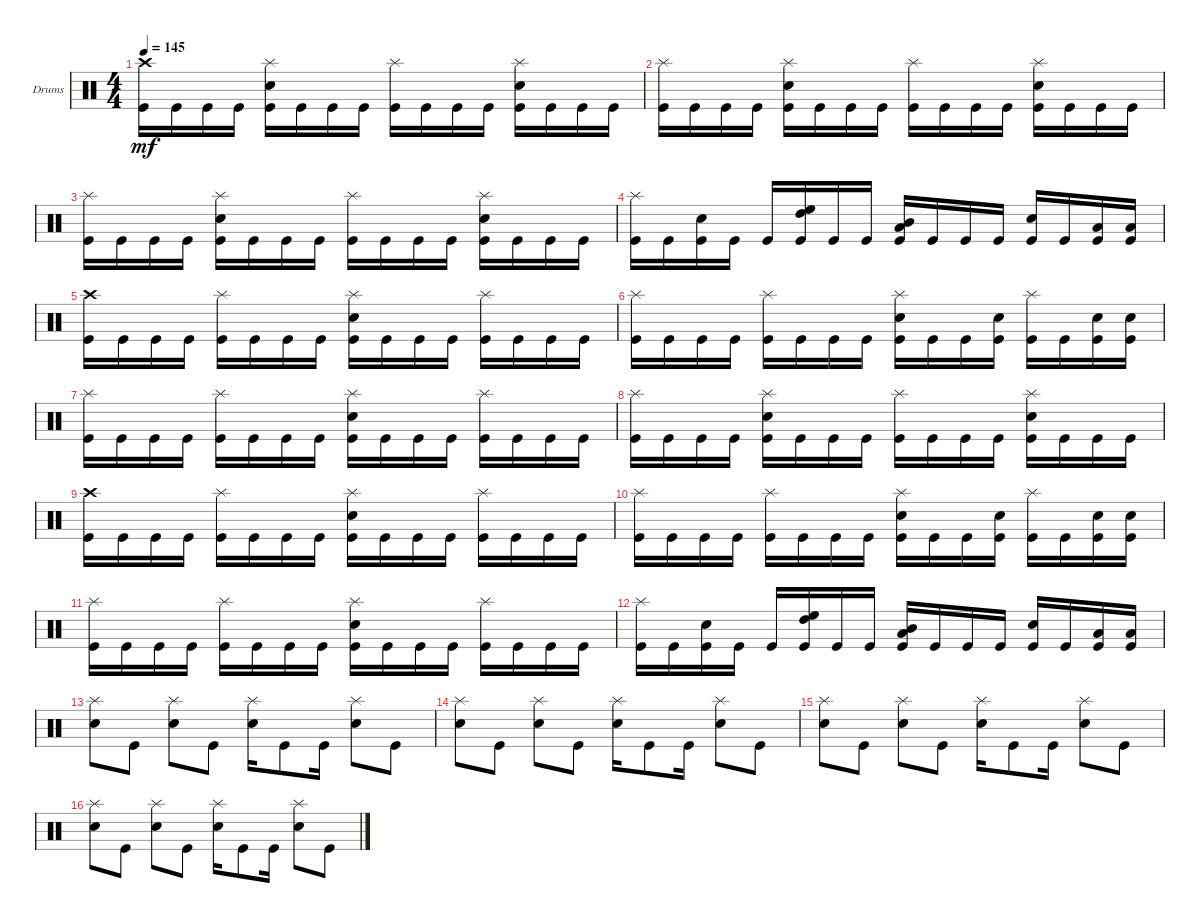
\bracketExtendMode groupsimilarinstruments
\firstSystemTrackNameOrientation horizontal
\otherSystemsTrackNameOrientation horizontal
\track ("Drumkit" "Drums") {instrument percussion}
\staff {score}
\articulation defaults
\ts (4 4)
\tempo 145
\clef neutral
\ks c
("Kick (hit)" "Crash high (hit)").16{dy mf} "Kick (hit)".16 "Kick (hit)".16 "Kick (hit)".16 ("Kick (hit)" "Snare (hit) 2" "Splash (hit)").16 "Kick (hit)".16 "Kick (hit)".16 "Kick (hit)".16 ("Kick (hit)" "Splash (hit)").16 "Kick (hit)".16 "Kick (hit)".16 "Kick (hit)".16 ("Kick (hit)" "Snare (hit) 2" "Splash (hit)").16 "Kick (hit)".16 "Kick (hit)".16 "Kick (hit)".16 |
("Kick (hit)" "Splash (hit)").16 "Kick (hit)".16 "Kick (hit)".16 "Kick (hit)".16 ("Kick (hit)" "Snare (hit) 2" "Splash (hit)").16 "Kick (hit)".16 "Kick (hit)".16 "Kick (hit)".16 ("Kick (hit)" "Splash (hit)").16 "Kick (hit)".16 "Kick (hit)".16 "Kick (hit)".16 ("Kick (hit)" "Snare (hit) 2" "Splash (hit)").16 "Kick (hit)".16 "Kick (hit)".16 "Kick (hit)".16 |
("Kick (hit)" "Splash (hit)").16 "Kick (hit)".16 "Kick (hit)".16 "Kick (hit)".16 ("Kick (hit)" "Snare (hit) 2" "Splash (hit)").16 "Kick (hit)".16 "Kick (hit)".16 "Kick (hit)".16 ("Kick (hit)" "Splash (hit)").16 "Kick (hit)".16 "Kick (hit)".16 "Kick (hit)".16 ("Kick (hit)" "Snare (hit) 2" "Splash (hit)").16 "Kick (hit)".16 "Kick (hit)".16 "Kick (hit)".16 |
("Kick (hit)" "Splash (hit)").16 "Kick (hit)".16 ("Snare (hit) 2" "Kick (hit)").16 "Kick (hit)".16 "Kick (hit)".16 ("High Tom (hit)" "High Floor Tom (hit)" "Kick (hit)").16 "Kick (hit)".16 "Kick (hit)".16 ("Mid Tom (hit)" "Low Tom (hit)" "Kick (hit)").16 "Kick (hit)".16 "Kick (hit)".16 "Kick (hit)".16 ("Snare (hit) 2" "Kick (hit)").16 "Kick (hit)".16 ("Low Tom (hit)" "Kick (hit)").16 ("Low Tom (hit)" "Kick (hit)").16 |
("Kick (hit)" "Crash high (hit)").16 "Kick (hit)".16 "Kick (hit)".16 "Kick (hit)".16 ("Kick (hit)" "Splash (hit)").16 "Kick (hit)".16 "Kick (hit)".16 "Kick (hit)".16 ("Kick (hit)" "Splash (hit)" "Snare (hit) 2").16 "Kick (hit)".16 "Kick (hit)".16 "Kick (hit)".16 ("Kick (hit)" "Splash (hit)").16 "Kick (hit)".16 "Kick (hit)".16 "Kick (hit)".16 |
("Kick (hit)" "Splash (hit)").16 "Kick (hit)".16 "Kick (hit)".16 "Kick (hit)".16 ("Kick (hit)" "Splash (hit)").16 "Kick (hit)".16 "Kick (hit)".16 "Kick (hit)".16 ("Kick (hit)" "Splash (hit)" "Snare (hit) 2").16 "Kick (hit)".16 "Kick (hit)".16 ("Kick (hit)" "Snare (hit) 2").16 ("Kick (hit)" "Splash (hit)").16 "Kick (hit)".16 ("Kick (hit)" "Snare (hit) 2").16 ("Kick (hit)" "Snare (hit) 2").16 |
("Kick (hit)" "Splash (hit)").16 "Kick (hit)".16 "Kick (hit)".16 "Kick (hit)".16 ("Kick (hit)" "Splash (hit)").16 "Kick (hit)".16 "Kick (hit)".16 "Kick (hit)".16 ("Kick (hit)" "Splash (hit)" "Snare (hit) 2").16 "Kick (hit)".16 "Kick (hit)".16 "Kick (hit)".16 ("Kick (hit)" "Splash (hit)").16 "Kick (hit)".16 "Kick (hit)".16 "Kick (hit)".16 |
("Kick (hit)" "Splash (hit)").16 "Kick (hit)".16 "Kick (hit)".16 "Kick (hit)".16 ("Kick (hit)" "Snare (hit) 2" "Splash (hit)").16 "Kick (hit)".16 "Kick (hit)".16 "Kick (hit)".16 ("Kick (hit)" "Splash (hit)").16 "Kick (hit)".16 "Kick (hit)".16 "Kick (hit)".16 ("Kick (hit)" "Snare (hit) 2" "Splash (hit)").16 "Kick (hit)".16 "Kick (hit)".16 "Kick (hit)".16 |
("Kick (hit)" "Crash high (hit)").16 "Kick (hit)".16 "Kick (hit)".16 "Kick (hit)".16 ("Kick (hit)" "Splash (hit)").16 "Kick (hit)".16 "Kick (hit)".16 "Kick (hit)".16 ("Kick (hit)" "Splash (hit)" "Snare (hit) 2").16 "Kick (hit)".16 "Kick (hit)".16 "Kick (hit)".16 ("Kick (hit)" "Splash (hit)").16 "Kick (hit)".16 "Kick (hit)".16 "Kick (hit)".16 |
("Kick (hit)" "Splash (hit)").16 "Kick (hit)".16 "Kick (hit)".16 "Kick (hit)".16 ("Kick (hit)" "Splash (hit)").16 "Kick (hit)".16 "Kick (hit)".16 "Kick (hit)".16 ("Kick (hit)" "Splash (hit)" "Snare (hit) 2").16 "Kick (hit)".16 "Kick (hit)".16 ("Kick (hit)" "Snare (hit) 2").16 ("Kick (hit)" "Splash (hit)").16 "Kick (hit)".16 ("Kick (hit)" "Snare (hit) 2").16 ("Kick (hit)" "Snare (hit) 2").16 |
("Kick (hit)" "Splash (hit)").16 "Kick (hit)".16 "Kick (hit)".16 "Kick (hit)".16 ("Kick (hit)" "Splash (hit)").16 "Kick (hit)".16 "Kick (hit)".16 "Kick (hit)".16 ("Kick (hit)" "Splash (hit)" "Snare (hit) 2").16 "Kick (hit)".16 "Kick (hit)".16 "Kick (hit)".16 ("Kick (hit)" "Splash (hit)").16 "Kick (hit)".16 "Kick (hit)".16 "Kick (hit)".16 |
("Kick (hit)" "Splash (hit)").16 "Kick (hit)".16 ("Snare (hit) 2" "Kick (hit)").16 "Kick (hit)".16 "Kick (hit)".16 ("High Tom (hit)" "High Floor Tom (hit)" "Kick (hit)").16 "Kick (hit)".16 "Kick (hit)".16 ("Mid Tom (hit)" "Low Tom (hit)" "Kick (hit)").16 "Kick (hit)".16 "Kick (hit)".16 "Kick (hit)".16 ("Snare (hit) 2" "Kick (hit)").16 "Kick (hit)".16 ("Low Tom (hit)" "Kick (hit)").16 ("Low Tom (hit)" "Kick (hit)").16 |
("Snare (hit) 2" "Splash (hit)").8 "Kick (hit)".8 ("Snare (hit) 2" "Splash (hit)").8 "Kick (hit)".8 ("Snare (hit) 2" "Splash (hit)").16 "Kick (hit)".8 "Kick (hit)".16 ("Snare (hit) 2" "Splash (hit)").8 "Kick (hit)".8 |
("Snare (hit) 2" "Splash (hit)").8 "Kick (hit)".8 ("Snare (hit) 2" "Splash (hit)").8 "Kick (hit)".8 ("Snare (hit) 2" "Splash (hit)").16 "Kick (hit)".8 "Kick (hit)".16 ("Snare (hit) 2" "Splash (hit)").8 "Kick (hit)".8 |
("Snare (hit) 2" "Splash (hit)").8 "Kick (hit)".8 ("Snare (hit) 2" "Splash (hit)").8 "Kick (hit)".8 ("Snare (hit) 2" "Splash (hit)").16 "Kick (hit)".8 "Kick (hit)".16 ("Snare (hit) 2" "Splash (hit)").8 "Kick (hit)".8 |
("Snare (hit) 2" "Splash (hit)").8 "Kick (hit)".8 ("Snare (hit) 2" "Splash (hit)").8 "Kick (hit)".8 ("Snare (hit) 2" "Splash (hit)").16 "Kick (hit)".8 "Kick (hit)".16 ("Snare (hit) 2" "Splash (hit)").8 "Kick (hit)".8
